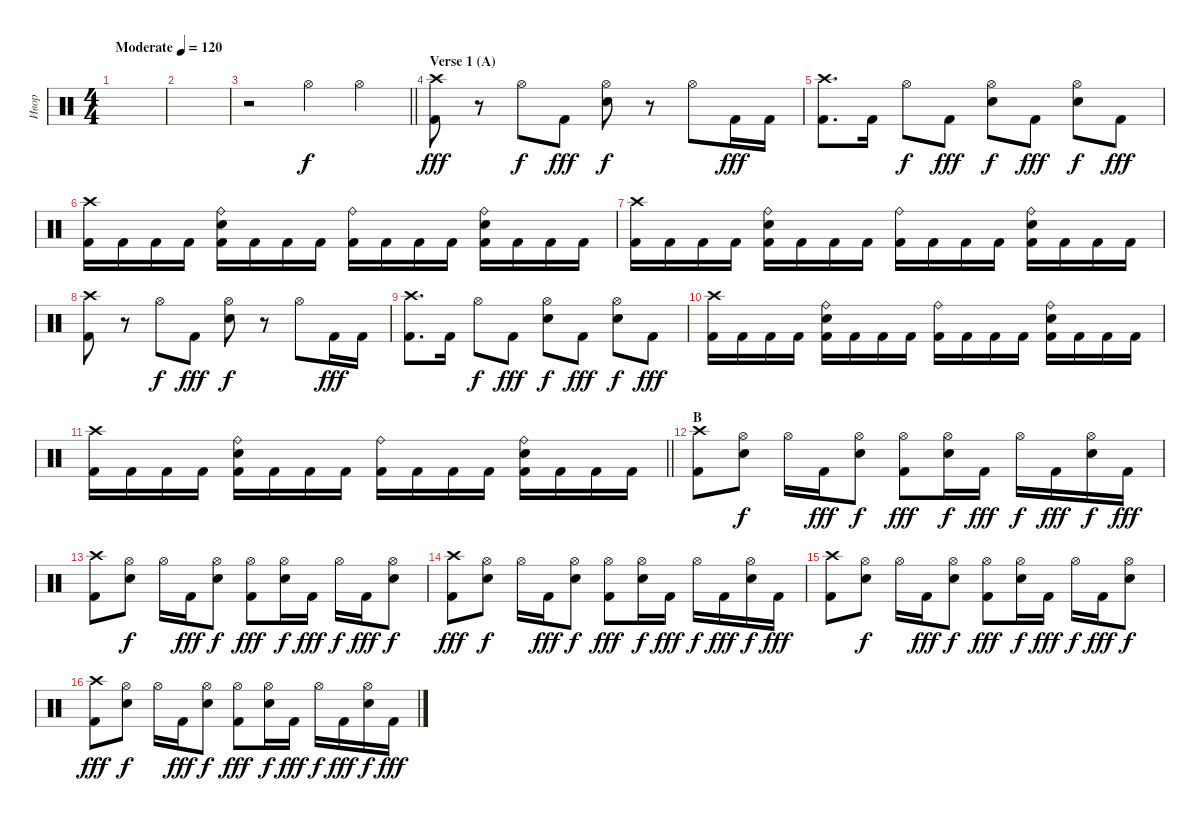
\track ("Ивор" "Ивор") {instrument percussion}
\staff {score}
\articulation defaults
\ts (4 4)
\tempo (120 "Moderate")
\clef neutral
\ks c
|
|
\barLineRight lightlight
r.2 "Hi-Hat (open)".4 "Hi-Hat (open)".4 |
\section ("" "Verse 1 (A)")
("Crash high (hit)" "Kick (hit) 2").8{dy fff} r.8 "Hi-Hat (open)".8{dy f} "Kick (hit) 2".8{dy fff} ("Hi-Hat (open)" "Electric Snare (hit)").8{dy f} r.8 "Hi-Hat (open)".8 "Kick (hit) 2".16{dy fff} "Kick (hit) 2".16 |
("Crash high (hit)" "Kick (hit) 2").8{d} "Kick (hit) 2".16 "Hi-Hat (open)".8{dy f} "Kick (hit) 2".8{dy fff} ("Hi-Hat (open)" "Electric Snare (hit)").8{dy f} "Kick (hit) 2".8{dy fff} ("Hi-Hat (open)" "Electric Snare (hit)").8{dy f} "Kick (hit) 2".8{dy fff} |
("Crash high (hit)" "Kick (hit) 2").16 "Kick (hit) 2".16 "Kick (hit) 2".16 "Kick (hit) 2".16 ("Ride (bell)" "Electric Snare (hit)" "Kick (hit) 2").16 "Kick (hit) 2".16 "Kick (hit) 2".16 "Kick (hit) 2".16 ("Ride (bell)" "Kick (hit) 2").16 "Kick (hit) 2".16 "Kick (hit) 2".16 "Kick (hit) 2".16 ("Ride (bell)" "Electric Snare (hit)" "Kick (hit) 2").16 "Kick (hit) 2".16 "Kick (hit) 2".16 "Kick (hit) 2".16 |
("Crash high (hit)" "Kick (hit) 2").16 "Kick (hit) 2".16 "Kick (hit) 2".16 "Kick (hit) 2".16 ("Ride (bell)" "Electric Snare (hit)" "Kick (hit) 2").16 "Kick (hit) 2".16 "Kick (hit) 2".16 "Kick (hit) 2".16 ("Ride (bell)" "Kick (hit) 2").16 "Kick (hit) 2".16 "Kick (hit) 2".16 "Kick (hit) 2".16 ("Ride (bell)" "Electric Snare (hit)" "Kick (hit) 2").16 "Kick (hit) 2".16 "Kick (hit) 2".16 "Kick (hit) 2".16 |
("Crash high (hit)" "Kick (hit) 2").8 r.8 "Hi-Hat (open)".8{dy f} "Kick (hit) 2".8{dy fff} ("Hi-Hat (open)" "Electric Snare (hit)").8{dy f} r.8 "Hi-Hat (open)".8 "Kick (hit) 2".16{dy fff} "Kick (hit) 2".16 |
("Crash high (hit)" "Kick (hit) 2").8{d} "Kick (hit) 2".16 "Hi-Hat (open)".8{dy f} "Kick (hit) 2".8{dy fff} ("Hi-Hat (open)" "Electric Snare (hit)").8{dy f} "Kick (hit) 2".8{dy fff} ("Hi-Hat (open)" "Electric Snare (hit)").8{dy f} "Kick (hit) 2".8{dy fff} |
("Crash high (hit)" "Kick (hit) 2").16 "Kick (hit) 2".16 "Kick (hit) 2".16 "Kick (hit) 2".16 ("Ride (bell)" "Electric Snare (hit)" "Kick (hit) 2").16 "Kick (hit) 2".16 "Kick (hit) 2".16 "Kick (hit) 2".16 ("Ride (bell)" "Kick (hit) 2").16 "Kick (hit) 2".16 "Kick (hit) 2".16 "Kick (hit) 2".16 ("Ride (bell)" "Electric Snare (hit)" "Kick (hit) 2").16 "Kick (hit) 2".16 "Kick (hit) 2".16 "Kick (hit) 2".16 |
\barLineRight lightlight
("Crash high (hit)" "Kick (hit) 2").16 "Kick (hit) 2".16 "Kick (hit) 2".16 "Kick (hit) 2".16 ("Ride (bell)" "Electric Snare (hit)" "Kick (hit) 2").16 "Kick (hit) 2".16 "Kick (hit) 2".16 "Kick (hit) 2".16 ("Ride (bell)" "Kick (hit) 2").16 "Kick (hit) 2".16 "Kick (hit) 2".16 "Kick (hit) 2".16 ("Ride (bell)" "Electric Snare (hit)" "Kick (hit) 2").16 "Kick (hit) 2".16 "Kick (hit) 2".16 "Kick (hit) 2".16 |
\section ("" "B")
("Crash high (hit)" "Kick (hit) 2").8 ("Hi-Hat (open)" "Electric Snare (hit)").8{dy f} "Hi-Hat (open)".16 "Kick (hit) 2".16{dy fff} ("Hi-Hat (open)" "Electric Snare (hit)").8{dy f} ("Hi-Hat (open)" "Kick (hit) 2").8{dy fff} ("Hi-Hat (open)" "Electric Snare (hit)").16{dy f} "Kick (hit) 2".16{dy fff} "Hi-Hat (open)".16{dy f} "Kick (hit) 2".16{dy fff} ("Hi-Hat (open)" "Electric Snare (hit)").16{dy f} "Kick (hit) 2".16{dy fff} |
("Crash high (hit)" "Kick (hit) 2").8 ("Hi-Hat (open)" "Electric Snare (hit)").8{dy f} "Hi-Hat (open)".16 "Kick (hit) 2".16{dy fff} ("Hi-Hat (open)" "Electric Snare (hit)").8{dy f} ("Hi-Hat (open)" "Kick (hit) 2").8{dy fff} ("Hi-Hat (open)" "Electric Snare (hit)").16{dy f} "Kick (hit) 2".16{dy fff} "Hi-Hat (open)".16{dy f} "Kick (hit) 2".16{dy fff} ("Hi-Hat (open)" "Electric Snare (hit)").8{dy f} |
("Crash high (hit)" "Kick (hit) 2").8{dy fff} ("Hi-Hat (open)" "Electric Snare (hit)").8{dy f} "Hi-Hat (open)".16 "Kick (hit) 2".16{dy fff} ("Hi-Hat (open)" "Electric Snare (hit)").8{dy f} ("Hi-Hat (open)" "Kick (hit) 2").8{dy fff} ("Hi-Hat (open)" "Electric Snare (hit)").16{dy f} "Kick (hit) 2".16{dy fff} "Hi-Hat (open)".16{dy f} "Kick (hit) 2".16{dy fff} ("Hi-Hat (open)" "Electric Snare (hit)").16{dy f} "Kick (hit) 2".16{dy fff} |
("Crash high (hit)" "Kick (hit) 2").8 ("Hi-Hat (open)" "Electric Snare (hit)").8{dy f} "Hi-Hat (open)".16 "Kick (hit) 2".16{dy fff} ("Hi-Hat (open)" "Electric Snare (hit)").8{dy f} ("Hi-Hat (open)" "Kick (hit) 2").8{dy fff} ("Hi-Hat (open)" "Electric Snare (hit)").16{dy f} "Kick (hit) 2".16{dy fff} "Hi-Hat (open)".16{dy f} "Kick (hit) 2".16{dy fff} ("Hi-Hat (open)" "Electric Snare (hit)").8{dy f} |
("Crash high (hit)" "Kick (hit) 2").8{dy fff} ("Hi-Hat (open)" "Electric Snare (hit)").8{dy f} "Hi-Hat (open)".16 "Kick (hit) 2".16{dy fff} ("Hi-Hat (open)" "Electric Snare (hit)").8{dy f} ("Hi-Hat (open)" "Kick (hit) 2").8{dy fff} ("Hi-Hat (open)" "Electric Snare (hit)").16{dy f} "Kick (hit) 2".16{dy fff} "Hi-Hat (open)".16{dy f} "Kick (hit) 2".16{dy fff} ("Hi-Hat (open)" "Electric Snare (hit)").16{dy f} "Kick (hit) 2".16{dy fff}
